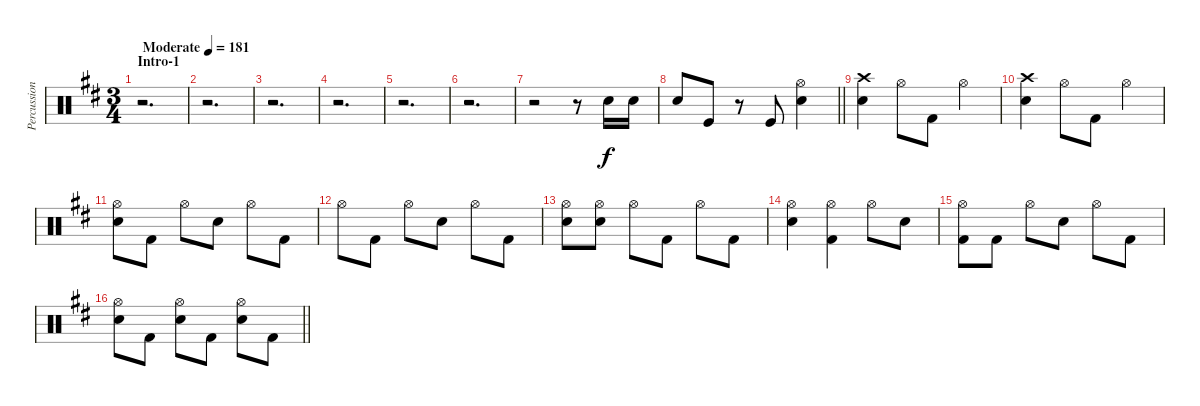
\track ("Percussion" "Percussion") {instrument percussion}
\staff {score}
\articulation defaults
\ts (3 4)
\section ("" "Intro-1")
\tempo (181 "Moderate")
\clef neutral
\ks d
r.2{d dy f} |
r.2{d} |
r.2{d} |
r.2{d} |
r.2{d} |
r.2{d} |
r.2 r.8 "Snare (hit) 2".16 "Snare (hit) 2".16 |
\barLineRight lightlight "Snare (hit) 2".8 "Kick (hit)".8
r.8 "Kick (hit)".8 ("Hi-Hat (open)" "Snare (hit) 2").4 |
("Crash high (hit)" "Snare (hit) 2").4 "Hi-Hat (open)".8 "Kick (hit) 2".8 "Hi-Hat (open)".4 |
("Crash high (hit)" "Snare (hit) 2").4 "Hi-Hat (open)".8 "Kick (hit) 2".8 "Hi-Hat (open)".4 |
("Hi-Hat (open)" "Snare (hit) 2").8 "Kick (hit) 2".8 "Hi-Hat (open)".8 "Snare (hit) 2".8 "Hi-Hat (open)".8 "Kick (hit) 2".8 |
"Hi-Hat (open)".8 "Kick (hit) 2".8 "Hi-Hat (open)".8 "Snare (hit) 2".8 "Hi-Hat (open)".8 "Kick (hit) 2".8 |
("Hi-Hat (open)" "Snare (hit) 2").8 ("Hi-Hat (open)" "Snare (hit) 2").8 "Hi-Hat (open)".8 "Kick (hit) 2".8 "Hi-Hat (open)".8 "Kick (hit) 2".8 |
("Hi-Hat (open)" "Snare (hit) 2").4 ("Hi-Hat (open)" "Kick (hit) 2").4 "Hi-Hat (open)".8 "Snare (hit) 2".8 |
("Hi-Hat (open)" "Kick (hit) 2").8 "Kick (hit) 2".8 "Hi-Hat (open)".8 "Snare (hit) 2".8 "Hi-Hat (open)".8 "Kick (hit) 2".8 |
\barLineRight lightlight
("Hi-Hat (open)" "Snare (hit) 2").8 "Kick (hit) 2".8 ("Hi-Hat (open)" "Snare (hit) 2").8 "Kick (hit) 2".8 ("Hi-Hat (open)" "Snare (hit) 2").8 "Kick (hit) 2".8
